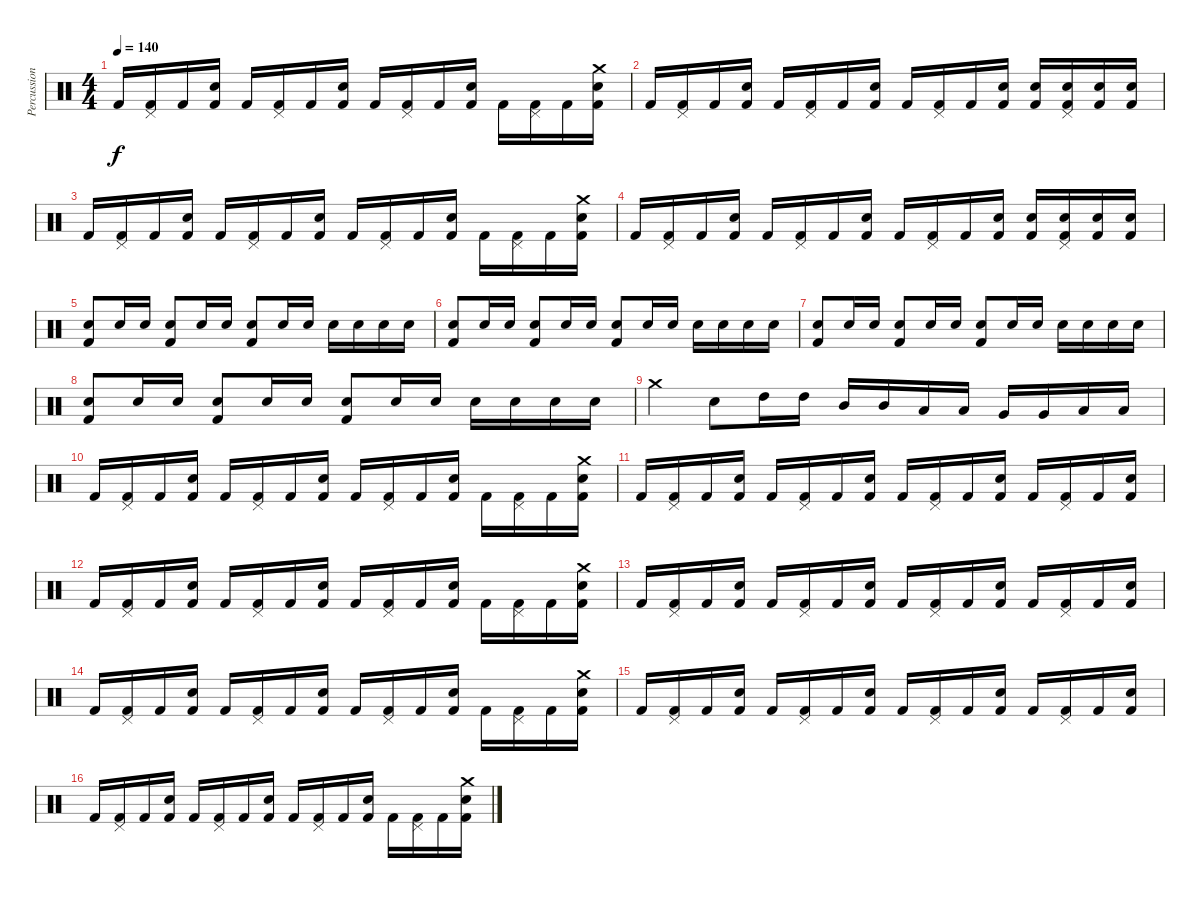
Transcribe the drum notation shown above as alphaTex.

\track ("Percussion" "Percussion") {instrument percussion}
\staff {score}
\articulation defaults
\ts (4 4)
\tempo 140
\clef neutral
\ks c "Kick (hit) 2".16{dy f}
("Pedal Hi-Hat (hit)" "Kick (hit) 2").16 "Kick (hit) 2".16 ("Snare (hit) 2" "Kick (hit) 2").16 "Kick (hit) 2".16 ("Pedal Hi-Hat (hit)" "Kick (hit) 2").16 "Kick (hit) 2".16 ("Snare (hit) 2" "Kick (hit) 2").16 "Kick (hit) 2".16 ("Pedal Hi-Hat (hit)" "Kick (hit) 2").16 "Kick (hit) 2".16 ("Snare (hit) 2" "Kick (hit) 2").16 "Kick (hit) 2".16 ("Pedal Hi-Hat (hit)" "Kick (hit) 2").16 "Kick (hit) 2".16 ("Crash medium (hit)" "Snare (hit) 2" "Kick (hit) 2").16 |
"Kick (hit) 2".16 ("Pedal Hi-Hat (hit)" "Kick (hit) 2").16 "Kick (hit) 2".16 ("Snare (hit) 2" "Kick (hit) 2").16 "Kick (hit) 2".16 ("Pedal Hi-Hat (hit)" "Kick (hit) 2").16 "Kick (hit) 2".16 ("Snare (hit) 2" "Kick (hit) 2").16 "Kick (hit) 2".16 ("Pedal Hi-Hat (hit)" "Kick (hit) 2").16 "Kick (hit) 2".16 ("Snare (hit) 2" "Kick (hit) 2").16 ("Snare (hit) 2" "Kick (hit) 2").16 ("Pedal Hi-Hat (hit)" "Snare (hit) 2" "Kick (hit) 2").16 ("Snare (hit) 2" "Kick (hit) 2").16 ("Snare (hit) 2" "Kick (hit) 2").16 |
"Kick (hit) 2".16 ("Pedal Hi-Hat (hit)" "Kick (hit) 2").16 "Kick (hit) 2".16 ("Snare (hit) 2" "Kick (hit) 2").16 "Kick (hit) 2".16 ("Pedal Hi-Hat (hit)" "Kick (hit) 2").16 "Kick (hit) 2".16 ("Snare (hit) 2" "Kick (hit) 2").16 "Kick (hit) 2".16 ("Pedal Hi-Hat (hit)" "Kick (hit) 2").16 "Kick (hit) 2".16 ("Snare (hit) 2" "Kick (hit) 2").16 "Kick (hit) 2".16 ("Pedal Hi-Hat (hit)" "Kick (hit) 2").16 "Kick (hit) 2".16 ("Crash medium (hit)" "Snare (hit) 2" "Kick (hit) 2").16 |
"Kick (hit) 2".16 ("Pedal Hi-Hat (hit)" "Kick (hit) 2").16 "Kick (hit) 2".16 ("Snare (hit) 2" "Kick (hit) 2").16 "Kick (hit) 2".16 ("Pedal Hi-Hat (hit)" "Kick (hit) 2").16 "Kick (hit) 2".16 ("Snare (hit) 2" "Kick (hit) 2").16 "Kick (hit) 2".16 ("Pedal Hi-Hat (hit)" "Kick (hit) 2").16 "Kick (hit) 2".16 ("Snare (hit) 2" "Kick (hit) 2").16 ("Snare (hit) 2" "Kick (hit) 2").16 ("Pedal Hi-Hat (hit)" "Snare (hit) 2" "Kick (hit) 2").16 ("Snare (hit) 2" "Kick (hit) 2").16 ("Snare (hit) 2" "Kick (hit) 2").16 |
("Electric Snare (hit)" "Kick (hit) 2").8 "Electric Snare (hit)".16 "Electric Snare (hit)".16 ("Electric Snare (hit)" "Kick (hit) 2").8 "Electric Snare (hit)".16 "Electric Snare (hit)".16 ("Electric Snare (hit)" "Kick (hit) 2").8 "Electric Snare (hit)".16 "Electric Snare (hit)".16 "Electric Snare (hit)".16 "Electric Snare (hit)".16 "Electric Snare (hit)".16 "Electric Snare (hit)".16 |
("Electric Snare (hit)" "Kick (hit) 2").8 "Electric Snare (hit)".16 "Electric Snare (hit)".16 ("Electric Snare (hit)" "Kick (hit) 2").8 "Electric Snare (hit)".16 "Electric Snare (hit)".16 ("Electric Snare (hit)" "Kick (hit) 2").8 "Electric Snare (hit)".16 "Electric Snare (hit)".16 "Electric Snare (hit)".16 "Electric Snare (hit)".16 "Electric Snare (hit)".16 "Electric Snare (hit)".16 |
("Electric Snare (hit)" "Kick (hit) 2").8 "Electric Snare (hit)".16 "Electric Snare (hit)".16 ("Electric Snare (hit)" "Kick (hit) 2").8 "Electric Snare (hit)".16 "Electric Snare (hit)".16 ("Electric Snare (hit)" "Kick (hit) 2").8 "Electric Snare (hit)".16 "Electric Snare (hit)".16 "Electric Snare (hit)".16 "Electric Snare (hit)".16 "Electric Snare (hit)".16 "Electric Snare (hit)".16 |
("Electric Snare (hit)" "Kick (hit) 2").8 "Electric Snare (hit)".16 "Electric Snare (hit)".16 ("Electric Snare (hit)" "Kick (hit) 2").8 "Electric Snare (hit)".16 "Electric Snare (hit)".16 ("Electric Snare (hit)" "Kick (hit) 2").8 "Electric Snare (hit)".16 "Electric Snare (hit)".16 "Electric Snare (hit)".16 "Electric Snare (hit)".16 "Electric Snare (hit)".16 "Electric Snare (hit)".16 |
"Crash medium (hit)".4 "Electric Snare (hit)".8 "High Tom (hit)".16 "High Tom (hit)".16 "Mid Tom (hit)".16 "Mid Tom (hit)".16 "Low Tom (hit)".16 "Low Tom (hit)".16 "Very Low Tom (hit)".16 "Very Low Tom (hit)".16 "Low Floor Tom (hit)".16 "Low Floor Tom (hit)".16 |
"Kick (hit) 2".16 ("Pedal Hi-Hat (hit)" "Kick (hit) 2").16 "Kick (hit) 2".16 ("Snare (hit) 2" "Kick (hit) 2").16 "Kick (hit) 2".16 ("Pedal Hi-Hat (hit)" "Kick (hit) 2").16 "Kick (hit) 2".16 ("Snare (hit) 2" "Kick (hit) 2").16 "Kick (hit) 2".16 ("Pedal Hi-Hat (hit)" "Kick (hit) 2").16 "Kick (hit) 2".16 ("Snare (hit) 2" "Kick (hit) 2").16 "Kick (hit) 2".16 ("Pedal Hi-Hat (hit)" "Kick (hit) 2").16 "Kick (hit) 2".16 ("Crash medium (hit)" "Snare (hit) 2" "Kick (hit) 2").16 |
"Kick (hit) 2".16 ("Pedal Hi-Hat (hit)" "Kick (hit) 2").16 "Kick (hit) 2".16 ("Snare (hit) 2" "Kick (hit) 2").16 "Kick (hit) 2".16 ("Pedal Hi-Hat (hit)" "Kick (hit) 2").16 "Kick (hit) 2".16 ("Snare (hit) 2" "Kick (hit) 2").16 "Kick (hit) 2".16 ("Pedal Hi-Hat (hit)" "Kick (hit) 2").16 "Kick (hit) 2".16 ("Snare (hit) 2" "Kick (hit) 2").16 "Kick (hit) 2".16 ("Pedal Hi-Hat (hit)" "Kick (hit) 2").16 "Kick (hit) 2".16 ("Snare (hit) 2" "Kick (hit) 2").16 |
"Kick (hit) 2".16 ("Pedal Hi-Hat (hit)" "Kick (hit) 2").16 "Kick (hit) 2".16 ("Snare (hit) 2" "Kick (hit) 2").16 "Kick (hit) 2".16 ("Pedal Hi-Hat (hit)" "Kick (hit) 2").16 "Kick (hit) 2".16 ("Snare (hit) 2" "Kick (hit) 2").16 "Kick (hit) 2".16 ("Pedal Hi-Hat (hit)" "Kick (hit) 2").16 "Kick (hit) 2".16 ("Snare (hit) 2" "Kick (hit) 2").16 "Kick (hit) 2".16 ("Pedal Hi-Hat (hit)" "Kick (hit) 2").16 "Kick (hit) 2".16 ("Crash medium (hit)" "Snare (hit) 2" "Kick (hit) 2").16 |
"Kick (hit) 2".16 ("Pedal Hi-Hat (hit)" "Kick (hit) 2").16 "Kick (hit) 2".16 ("Snare (hit) 2" "Kick (hit) 2").16 "Kick (hit) 2".16 ("Pedal Hi-Hat (hit)" "Kick (hit) 2").16 "Kick (hit) 2".16 ("Snare (hit) 2" "Kick (hit) 2").16 "Kick (hit) 2".16 ("Pedal Hi-Hat (hit)" "Kick (hit) 2").16 "Kick (hit) 2".16 ("Snare (hit) 2" "Kick (hit) 2").16 "Kick (hit) 2".16 ("Pedal Hi-Hat (hit)" "Kick (hit) 2").16 "Kick (hit) 2".16 ("Snare (hit) 2" "Kick (hit) 2").16 |
"Kick (hit) 2".16 ("Pedal Hi-Hat (hit)" "Kick (hit) 2").16 "Kick (hit) 2".16 ("Snare (hit) 2" "Kick (hit) 2").16 "Kick (hit) 2".16 ("Pedal Hi-Hat (hit)" "Kick (hit) 2").16 "Kick (hit) 2".16 ("Snare (hit) 2" "Kick (hit) 2").16 "Kick (hit) 2".16 ("Pedal Hi-Hat (hit)" "Kick (hit) 2").16 "Kick (hit) 2".16 ("Snare (hit) 2" "Kick (hit) 2").16 "Kick (hit) 2".16 ("Pedal Hi-Hat (hit)" "Kick (hit) 2").16 "Kick (hit) 2".16 ("Crash medium (hit)" "Snare (hit) 2" "Kick (hit) 2").16 |
"Kick (hit) 2".16 ("Pedal Hi-Hat (hit)" "Kick (hit) 2").16 "Kick (hit) 2".16 ("Snare (hit) 2" "Kick (hit) 2").16 "Kick (hit) 2".16 ("Pedal Hi-Hat (hit)" "Kick (hit) 2").16 "Kick (hit) 2".16 ("Snare (hit) 2" "Kick (hit) 2").16 "Kick (hit) 2".16 ("Pedal Hi-Hat (hit)" "Kick (hit) 2").16 "Kick (hit) 2".16 ("Snare (hit) 2" "Kick (hit) 2").16 "Kick (hit) 2".16 ("Pedal Hi-Hat (hit)" "Kick (hit) 2").16 "Kick (hit) 2".16 ("Snare (hit) 2" "Kick (hit) 2").16 |
"Kick (hit) 2".16 ("Pedal Hi-Hat (hit)" "Kick (hit) 2").16 "Kick (hit) 2".16 ("Snare (hit) 2" "Kick (hit) 2").16 "Kick (hit) 2".16 ("Pedal Hi-Hat (hit)" "Kick (hit) 2").16 "Kick (hit) 2".16 ("Snare (hit) 2" "Kick (hit) 2").16 "Kick (hit) 2".16 ("Pedal Hi-Hat (hit)" "Kick (hit) 2").16 "Kick (hit) 2".16 ("Snare (hit) 2" "Kick (hit) 2").16 "Kick (hit) 2".16 ("Pedal Hi-Hat (hit)" "Kick (hit) 2").16 "Kick (hit) 2".16 ("Crash medium (hit)" "Snare (hit) 2" "Kick (hit) 2").16
